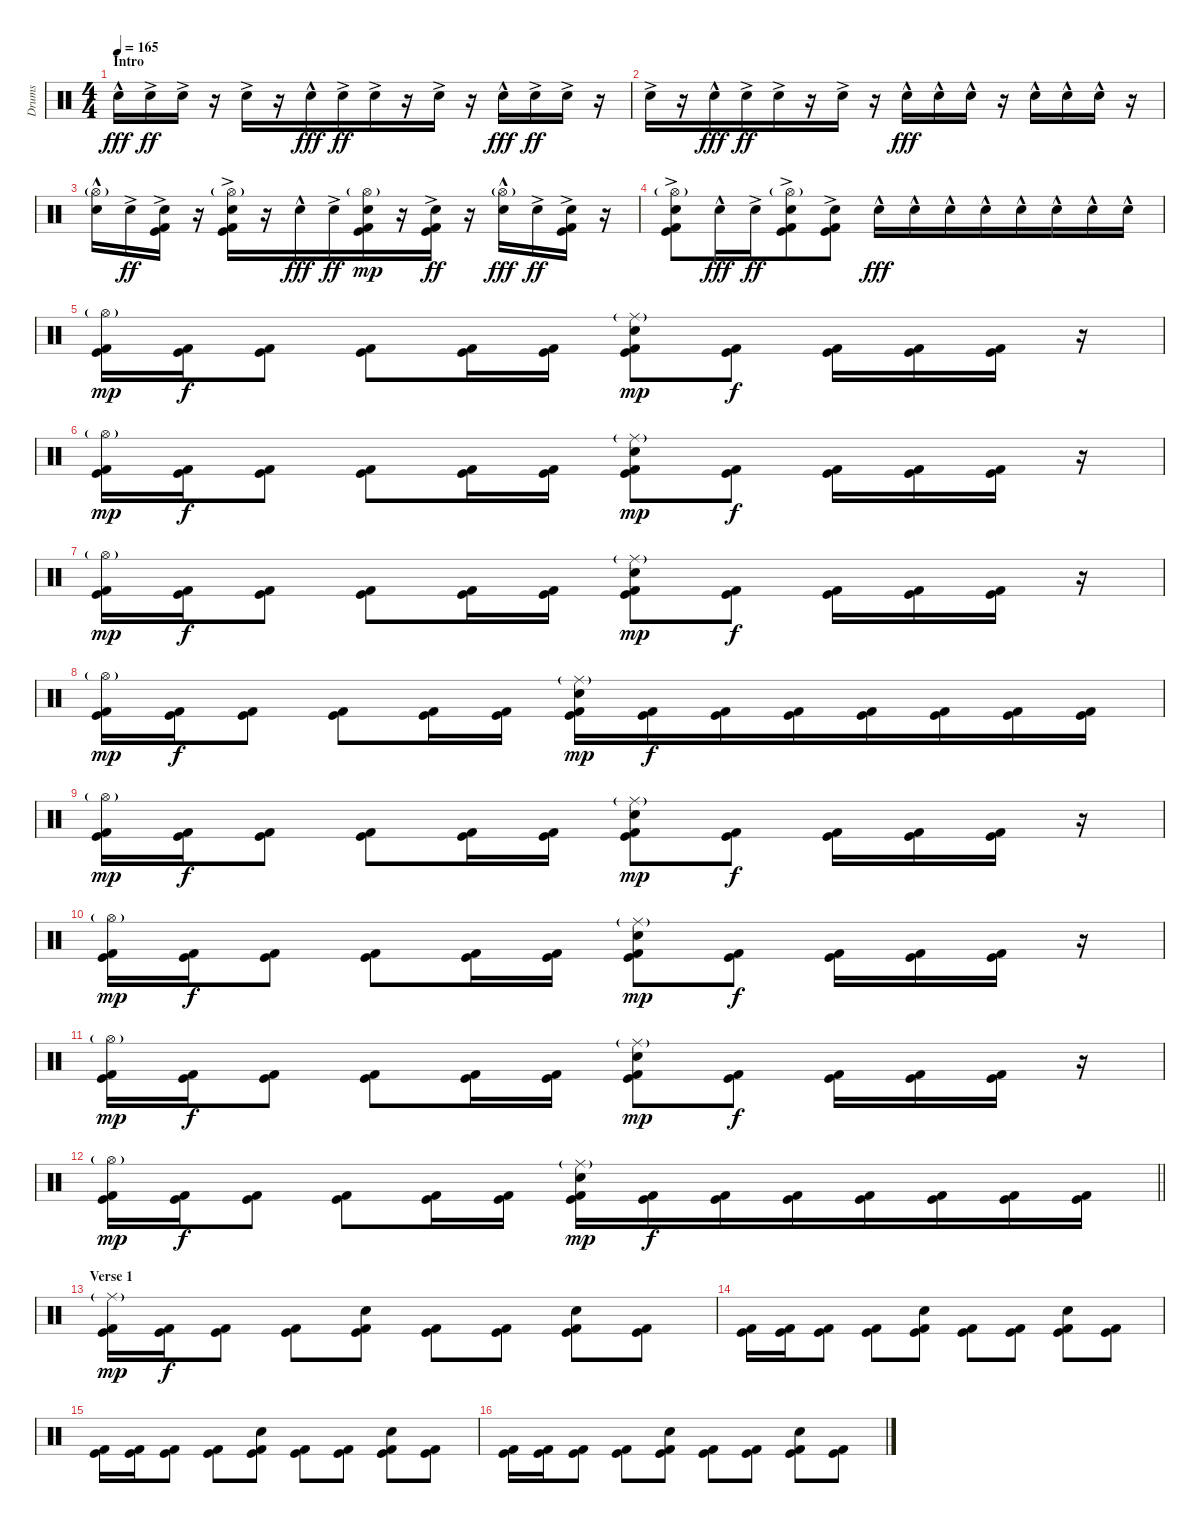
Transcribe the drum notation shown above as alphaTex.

\track ("Drums" "Drums") {instrument percussion}
\staff {score}
\articulation defaults
\ts (4 4)
\section ("" "Intro")
\tempo 165
\clef neutral
\ks c "Snare (hit) 2"{hac}.16{dy fff} "Snare (hit) 2"{ac}.16{dy ff beam merge} "Snare (hit) 2"{ac}.16
r.16 "Snare (hit) 2"{ac}.16 r.16 "Snare (hit) 2"{hac}.16{dy fff} "Snare (hit) 2"{ac}.16{dy ff beam merge} "Snare (hit) 2"{ac}.16 r.16 "Snare (hit) 2"{ac}.16 r.16 "Snare (hit) 2"{hac}.16{dy fff} "Snare (hit) 2"{ac}.16{dy ff beam merge} "Snare (hit) 2"{ac}.16 r.16 |
"Snare (hit) 2"{ac}.16 r.16 "Snare (hit) 2"{hac}.16{dy fff} "Snare (hit) 2"{ac}.16{dy ff beam merge} "Snare (hit) 2"{ac}.16 r.16 "Snare (hit) 2"{ac}.16 r.16 "Snare (hit) 2"{hac}.16{dy fff} "Snare (hit) 2"{hac}.16 "Snare (hit) 2"{hac}.16 r.16 "Snare (hit) 2"{hac}.16 "Snare (hit) 2"{hac}.16 "Snare (hit) 2"{hac}.16 r.16 |
("Hi-Hat (open)"{g} "Snare (hit) 2"{hac}).16{beam Down} "Snare (hit) 2"{ac}.16{dy ff beam Down} ("Snare (hit) 2"{ac} "Kick (hit)" "Kick (hit) 2").16{beam Down} r.16 ("Hi-Hat (open)"{g} "Snare (hit) 2"{ac} "Kick (hit)" "Kick (hit) 2").16{beam Down} r.16 "Snare (hit) 2"{hac}.16{dy fff beam Down} "Snare (hit) 2"{ac}.16{dy ff beam Down beam merge} ("Hi-Hat (open)"{g} "Snare (hit) 2" "Kick (hit)" "Kick (hit) 2").16{dy mp beam Down} r.16 ("Snare (hit) 2"{ac} "Kick (hit)" "Kick (hit) 2").16{dy ff beam Down} r.16 ("Hi-Hat (open)"{g} "Snare (hit) 2"{hac}).16{dy fff beam Down} "Snare (hit) 2"{ac}.16{dy ff beam Down} ("Snare (hit) 2"{ac} "Kick (hit)" "Kick (hit) 2").16{beam Down} r.16 |
("Hi-Hat (open)"{g} "Snare (hit) 2"{ac} "Kick (hit)" "Kick (hit) 2").8{beam Down} "Snare (hit) 2"{hac}.16{dy fff beam Down} "Snare (hit) 2"{ac}.16{dy ff beam Down beam merge} ("Hi-Hat (open)"{g} "Snare (hit) 2"{ac} "Kick (hit)" "Kick (hit) 2").8{beam Down} ("Snare (hit) 2"{ac} "Kick (hit)" "Kick (hit) 2").8{beam Down} "Snare (hit) 2"{hac}.16{dy fff} "Snare (hit) 2"{hac}.16 "Snare (hit) 2"{hac}.16 "Snare (hit) 2"{hac}.16{beam merge} "Snare (hit) 2"{hac}.16 "Snare (hit) 2"{hac}.16 "Snare (hit) 2"{hac}.16 "Snare (hit) 2"{hac}.16 |
("Hi-Hat (open)"{g} "Kick (hit)" "Kick (hit) 2").16{dy mp beam Down} ("Kick (hit)" "Kick (hit) 2").16{dy f beam Down} ("Kick (hit)" "Kick (hit) 2").8{beam Down} ("Kick (hit)" "Kick (hit) 2").8{beam Down} ("Kick (hit)" "Kick (hit) 2").16{beam Down} ("Kick (hit)" "Kick (hit) 2").16{beam Down} ("Ride (middle)"{g} "Snare (hit) 2" "Kick (hit)" "Kick (hit) 2").8{dy mp beam merge} ("Kick (hit)" "Kick (hit) 2").8{dy f} ("Kick (hit)" "Kick (hit) 2").16{beam Down beam merge} ("Kick (hit)" "Kick (hit) 2").16{beam Down} ("Kick (hit)" "Kick (hit) 2").16{beam Down} r.16 |
("Hi-Hat (open)"{g} "Kick (hit)" "Kick (hit) 2").16{dy mp beam Down} ("Kick (hit)" "Kick (hit) 2").16{dy f beam Down} ("Kick (hit)" "Kick (hit) 2").8{beam Down} ("Kick (hit)" "Kick (hit) 2").8{beam Down} ("Kick (hit)" "Kick (hit) 2").16{beam Down} ("Kick (hit)" "Kick (hit) 2").16{beam Down} ("Ride (middle)"{g} "Snare (hit) 2" "Kick (hit)" "Kick (hit) 2").8{dy mp beam merge} ("Kick (hit)" "Kick (hit) 2").8{dy f} ("Kick (hit)" "Kick (hit) 2").16{beam Down beam merge} ("Kick (hit)" "Kick (hit) 2").16{beam Down} ("Kick (hit)" "Kick (hit) 2").16{beam Down} r.16 |
("Hi-Hat (open)"{g} "Kick (hit)" "Kick (hit) 2").16{dy mp beam Down} ("Kick (hit)" "Kick (hit) 2").16{dy f beam Down} ("Kick (hit)" "Kick (hit) 2").8{beam Down} ("Kick (hit)" "Kick (hit) 2").8{beam Down} ("Kick (hit)" "Kick (hit) 2").16{beam Down} ("Kick (hit)" "Kick (hit) 2").16{beam Down} ("Ride (middle)"{g} "Snare (hit) 2" "Kick (hit)" "Kick (hit) 2").8{dy mp beam merge} ("Kick (hit)" "Kick (hit) 2").8{dy f} ("Kick (hit)" "Kick (hit) 2").16{beam Down beam merge} ("Kick (hit)" "Kick (hit) 2").16{beam Down} ("Kick (hit)" "Kick (hit) 2").16{beam Down} r.16 |
("Hi-Hat (open)"{g} "Kick (hit)" "Kick (hit) 2").16{dy mp beam Down} ("Kick (hit)" "Kick (hit) 2").16{dy f beam Down} ("Kick (hit)" "Kick (hit) 2").8{beam Down} ("Kick (hit)" "Kick (hit) 2").8{beam Down} ("Kick (hit)" "Kick (hit) 2").16{beam Down} ("Kick (hit)" "Kick (hit) 2").16{beam Down} ("Ride (middle)"{g} "Snare (hit) 2" "Kick (hit)" "Kick (hit) 2").16{dy mp beam merge} ("Kick (hit)" "Kick (hit) 2").16{dy f} ("Kick (hit)" "Kick (hit) 2").16{beam merge} ("Kick (hit)" "Kick (hit) 2").16{beam merge} ("Kick (hit)" "Kick (hit) 2").16 ("Kick (hit)" "Kick (hit) 2").16 ("Kick (hit)" "Kick (hit) 2").16 ("Kick (hit)" "Kick (hit) 2").16 |
("Hi-Hat (open)"{g} "Kick (hit)" "Kick (hit) 2").16{dy mp beam Down} ("Kick (hit)" "Kick (hit) 2").16{dy f beam Down} ("Kick (hit)" "Kick (hit) 2").8{beam Down} ("Kick (hit)" "Kick (hit) 2").8{beam Down} ("Kick (hit)" "Kick (hit) 2").16{beam Down} ("Kick (hit)" "Kick (hit) 2").16{beam Down} ("Ride (middle)"{g} "Snare (hit) 2" "Kick (hit)" "Kick (hit) 2").8{dy mp beam merge} ("Kick (hit)" "Kick (hit) 2").8{dy f} ("Kick (hit)" "Kick (hit) 2").16{beam Down beam merge} ("Kick (hit)" "Kick (hit) 2").16{beam Down} ("Kick (hit)" "Kick (hit) 2").16{beam Down} r.16 |
("Hi-Hat (open)"{g} "Kick (hit)" "Kick (hit) 2").16{dy mp beam Down} ("Kick (hit)" "Kick (hit) 2").16{dy f beam Down} ("Kick (hit)" "Kick (hit) 2").8{beam Down} ("Kick (hit)" "Kick (hit) 2").8{beam Down} ("Kick (hit)" "Kick (hit) 2").16{beam Down} ("Kick (hit)" "Kick (hit) 2").16{beam Down} ("Ride (middle)"{g} "Snare (hit) 2" "Kick (hit)" "Kick (hit) 2").8{dy mp beam merge} ("Kick (hit)" "Kick (hit) 2").8{dy f} ("Kick (hit)" "Kick (hit) 2").16{beam Down beam merge} ("Kick (hit)" "Kick (hit) 2").16{beam Down} ("Kick (hit)" "Kick (hit) 2").16{beam Down} r.16 |
("Hi-Hat (open)"{g} "Kick (hit)" "Kick (hit) 2").16{dy mp beam Down} ("Kick (hit)" "Kick (hit) 2").16{dy f beam Down} ("Kick (hit)" "Kick (hit) 2").8{beam Down} ("Kick (hit)" "Kick (hit) 2").8{beam Down} ("Kick (hit)" "Kick (hit) 2").16{beam Down} ("Kick (hit)" "Kick (hit) 2").16{beam Down} ("Ride (middle)"{g} "Snare (hit) 2" "Kick (hit)" "Kick (hit) 2").8{dy mp beam merge} ("Kick (hit)" "Kick (hit) 2").8{dy f} ("Kick (hit)" "Kick (hit) 2").16{beam Down beam merge} ("Kick (hit)" "Kick (hit) 2").16{beam Down} ("Kick (hit)" "Kick (hit) 2").16{beam Down} r.16 |
\barLineRight lightlight
("Hi-Hat (open)"{g} "Kick (hit)" "Kick (hit) 2").16{dy mp beam Down} ("Kick (hit)" "Kick (hit) 2").16{dy f beam Down} ("Kick (hit)" "Kick (hit) 2").8{beam Down} ("Kick (hit)" "Kick (hit) 2").8{beam Down} ("Kick (hit)" "Kick (hit) 2").16{beam Down} ("Kick (hit)" "Kick (hit) 2").16{beam Down} ("Ride (middle)"{g} "Snare (hit) 2" "Kick (hit)" "Kick (hit) 2").16{dy mp beam merge} ("Kick (hit)" "Kick (hit) 2").16{dy f} ("Kick (hit)" "Kick (hit) 2").16{beam merge} ("Kick (hit)" "Kick (hit) 2").16{beam merge} ("Kick (hit)" "Kick (hit) 2").16 ("Kick (hit)" "Kick (hit) 2").16 ("Kick (hit)" "Kick (hit) 2").16 ("Kick (hit)" "Kick (hit) 2").16 |
\section ("" "Verse 1")
("Ride (middle)"{g} "Kick (hit)" "Kick (hit) 2").16{dy mp beam Down} ("Kick (hit)" "Kick (hit) 2").16{dy f beam Down} ("Kick (hit)" "Kick (hit) 2").8{beam Down} ("Kick (hit)" "Kick (hit) 2").8{beam Down} ("Snare (hit) 2" "Kick (hit)" "Kick (hit) 2").8{beam Down} ("Kick (hit)" "Kick (hit) 2").8{beam Down} ("Kick (hit)" "Kick (hit) 2").8{beam Down} ("Snare (hit) 2" "Kick (hit)" "Kick (hit) 2").8{beam Down} ("Kick (hit)" "Kick (hit) 2").8{beam Down} |
("Kick (hit)" "Kick (hit) 2").16{beam Down} ("Kick (hit)" "Kick (hit) 2").16{beam Down} ("Kick (hit)" "Kick (hit) 2").8{beam Down} ("Kick (hit)" "Kick (hit) 2").8{beam Down} ("Snare (hit) 2" "Kick (hit)" "Kick (hit) 2").8{beam Down} ("Kick (hit)" "Kick (hit) 2").8{beam Down} ("Kick (hit)" "Kick (hit) 2").8{beam Down} ("Snare (hit) 2" "Kick (hit)" "Kick (hit) 2").8{beam Down} ("Kick (hit)" "Kick (hit) 2").8{beam Down} |
("Kick (hit)" "Kick (hit) 2").16{beam Down} ("Kick (hit)" "Kick (hit) 2").16{beam Down} ("Kick (hit)" "Kick (hit) 2").8{beam Down} ("Kick (hit)" "Kick (hit) 2").8{beam Down} ("Snare (hit) 2" "Kick (hit)" "Kick (hit) 2").8{beam Down} ("Kick (hit)" "Kick (hit) 2").8{beam Down} ("Kick (hit)" "Kick (hit) 2").8{beam Down} ("Snare (hit) 2" "Kick (hit)" "Kick (hit) 2").8{beam Down} ("Kick (hit)" "Kick (hit) 2").8{beam Down} |
("Kick (hit)" "Kick (hit) 2").16{beam Down} ("Kick (hit)" "Kick (hit) 2").16{beam Down} ("Kick (hit)" "Kick (hit) 2").8{beam Down} ("Kick (hit)" "Kick (hit) 2").8{beam Down} ("Snare (hit) 2" "Kick (hit)" "Kick (hit) 2").8{beam Down} ("Kick (hit)" "Kick (hit) 2").8{beam Down} ("Kick (hit)" "Kick (hit) 2").8{beam Down} ("Snare (hit) 2" "Kick (hit)" "Kick (hit) 2").8{beam Down} ("Kick (hit)" "Kick (hit) 2").8{beam Down}
